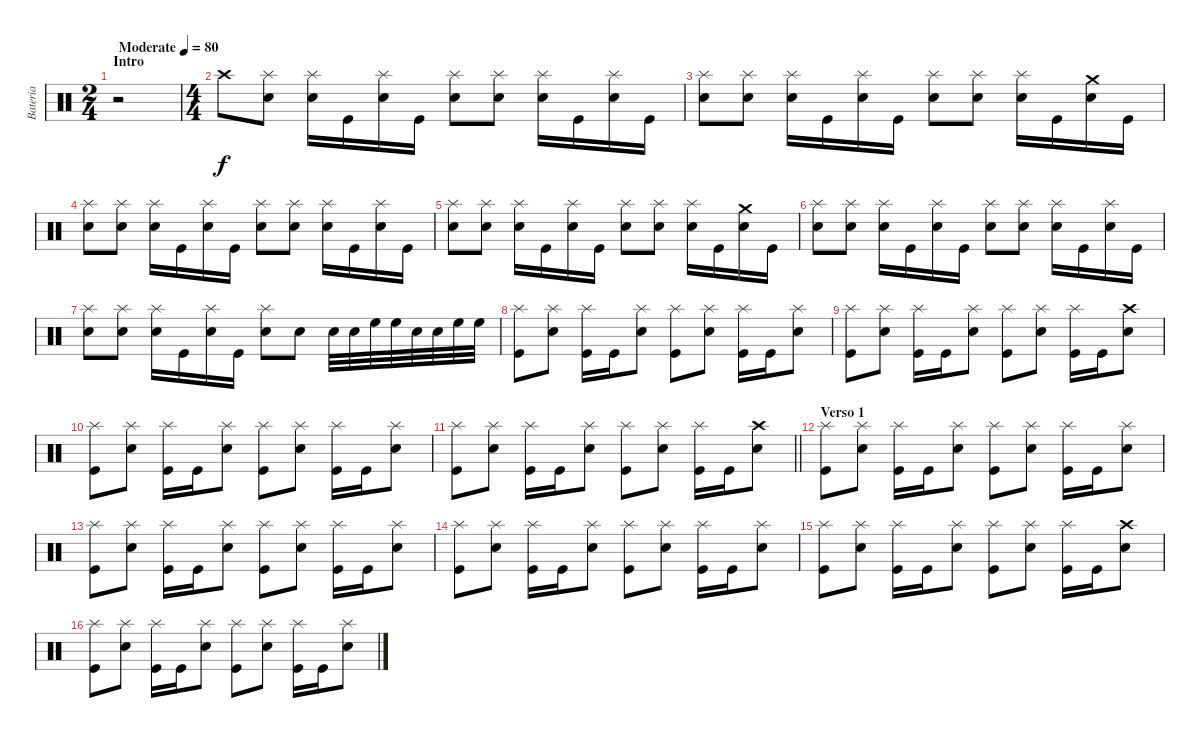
\track ("Bateria" "Bateria") {instrument percussion}
\staff {score}
\articulation defaults
\ts (2 4)
\section ("" "Intro")
\tempo (80 "Moderate")
\clef neutral
\ks c
r.2{dy f} |
\ts (4 4)
"Crash high (hit)".8 ("Electric Snare (hit)" "Splash (hit)").8 ("Electric Snare (hit)" "Splash (hit)").16 "Kick (hit)".16 ("Electric Snare (hit)" "Splash (hit)").16 "Kick (hit)".16 ("Electric Snare (hit)" "Splash (hit)").8 ("Electric Snare (hit)" "Splash (hit)").8 ("Electric Snare (hit)" "Splash (hit)").16 "Kick (hit)".16 ("Electric Snare (hit)" "Splash (hit)").16 "Kick (hit)".16 |
("Electric Snare (hit)" "Splash (hit)").8 ("Electric Snare (hit)" "Splash (hit)").8 ("Electric Snare (hit)" "Splash (hit)").16 "Kick (hit)".16 ("Electric Snare (hit)" "Splash (hit)").16 "Kick (hit)".16 ("Electric Snare (hit)" "Splash (hit)").8 ("Electric Snare (hit)" "Splash (hit)").8 ("Electric Snare (hit)" "Splash (hit)").16 "Kick (hit)".16 ("Electric Snare (hit)" "Crash medium (hit)").16 "Kick (hit)".16 |
("Electric Snare (hit)" "Splash (hit)").8 ("Electric Snare (hit)" "Splash (hit)").8 ("Electric Snare (hit)" "Splash (hit)").16 "Kick (hit)".16 ("Electric Snare (hit)" "Splash (hit)").16 "Kick (hit)".16 ("Electric Snare (hit)" "Splash (hit)").8 ("Electric Snare (hit)" "Splash (hit)").8 ("Electric Snare (hit)" "Splash (hit)").16 "Kick (hit)".16 ("Electric Snare (hit)" "Splash (hit)").16 "Kick (hit)".16 |
("Electric Snare (hit)" "Splash (hit)").8 ("Electric Snare (hit)" "Splash (hit)").8 ("Electric Snare (hit)" "Splash (hit)").16 "Kick (hit)".16 ("Electric Snare (hit)" "Splash (hit)").16 "Kick (hit)".16 ("Electric Snare (hit)" "Splash (hit)").8 ("Electric Snare (hit)" "Splash (hit)").8 ("Electric Snare (hit)" "Splash (hit)").16 "Kick (hit)".16 ("Electric Snare (hit)" "Crash medium (hit)").16 "Kick (hit)".16 |
("Electric Snare (hit)" "Splash (hit)").8 ("Electric Snare (hit)" "Splash (hit)").8 ("Electric Snare (hit)" "Splash (hit)").16 "Kick (hit)".16 ("Electric Snare (hit)" "Splash (hit)").16 "Kick (hit)".16 ("Electric Snare (hit)" "Splash (hit)").8 ("Electric Snare (hit)" "Splash (hit)").8 ("Electric Snare (hit)" "Splash (hit)").16 "Kick (hit)".16 ("Electric Snare (hit)" "Splash (hit)").16 "Kick (hit)".16 |
("Electric Snare (hit)" "Splash (hit)").8 ("Electric Snare (hit)" "Splash (hit)").8 ("Electric Snare (hit)" "Splash (hit)").16 "Kick (hit)".16 ("Electric Snare (hit)" "Splash (hit)").16 "Kick (hit)".16 ("Electric Snare (hit)" "Splash (hit)").8 "Electric Snare (hit)".8 "Electric Snare (hit)".32 "Electric Snare (hit)".32 "High Floor Tom (hit)".32 "High Floor Tom (hit)".32 "Electric Snare (hit)".32 "Electric Snare (hit)".32 "High Floor Tom (hit)".32 "High Floor Tom (hit)".32 |
("Kick (hit)" "Splash (hit)").8 ("Electric Snare (hit)" "Splash (hit)").8 ("Kick (hit)" "Splash (hit)").16 "Kick (hit)".16 ("Electric Snare (hit)" "Splash (hit)").8 ("Kick (hit)" "Splash (hit)").8 ("Electric Snare (hit)" "Splash (hit)").8 ("Kick (hit)" "Splash (hit)").16 "Kick (hit)".16 ("Electric Snare (hit)" "Splash (hit)").8 |
("Kick (hit)" "Splash (hit)").8 ("Electric Snare (hit)" "Splash (hit)").8 ("Kick (hit)" "Splash (hit)").16 "Kick (hit)".16 ("Electric Snare (hit)" "Splash (hit)").8 ("Kick (hit)" "Splash (hit)").8 ("Electric Snare (hit)" "Splash (hit)").8 ("Kick (hit)" "Splash (hit)").16 "Kick (hit)".16 ("Electric Snare (hit)" "Crash high (hit)").8 |
("Kick (hit)" "Splash (hit)").8 ("Electric Snare (hit)" "Splash (hit)").8 ("Kick (hit)" "Splash (hit)").16 "Kick (hit)".16 ("Electric Snare (hit)" "Splash (hit)").8 ("Kick (hit)" "Splash (hit)").8 ("Electric Snare (hit)" "Splash (hit)").8 ("Kick (hit)" "Splash (hit)").16 "Kick (hit)".16 ("Electric Snare (hit)" "Splash (hit)").8 |
\barLineRight lightlight
("Kick (hit)" "Splash (hit)").8 ("Electric Snare (hit)" "Splash (hit)").8 ("Kick (hit)" "Splash (hit)").16 "Kick (hit)".16 ("Electric Snare (hit)" "Splash (hit)").8 ("Kick (hit)" "Splash (hit)").8 ("Electric Snare (hit)" "Splash (hit)").8 ("Kick (hit)" "Splash (hit)").16 "Kick (hit)".16 ("Electric Snare (hit)" "Crash high (hit)").8 |
\section ("" "Verso 1")
("Kick (hit)" "Splash (hit)").8 ("Electric Snare (hit)" "Splash (hit)").8 ("Kick (hit)" "Splash (hit)").16 "Kick (hit)".16 ("Electric Snare (hit)" "Splash (hit)").8 ("Kick (hit)" "Splash (hit)").8 ("Electric Snare (hit)" "Splash (hit)").8 ("Kick (hit)" "Splash (hit)").16 "Kick (hit)".16 ("Electric Snare (hit)" "Splash (hit)").8 |
("Kick (hit)" "Splash (hit)").8 ("Electric Snare (hit)" "Splash (hit)").8 ("Kick (hit)" "Splash (hit)").16 "Kick (hit)".16 ("Electric Snare (hit)" "Splash (hit)").8 ("Kick (hit)" "Splash (hit)").8 ("Electric Snare (hit)" "Splash (hit)").8 ("Kick (hit)" "Splash (hit)").16 "Kick (hit)".16 ("Electric Snare (hit)" "Splash (hit)").8 |
("Kick (hit)" "Splash (hit)").8 ("Electric Snare (hit)" "Splash (hit)").8 ("Kick (hit)" "Splash (hit)").16 "Kick (hit)".16 ("Electric Snare (hit)" "Splash (hit)").8 ("Kick (hit)" "Splash (hit)").8 ("Electric Snare (hit)" "Splash (hit)").8 ("Kick (hit)" "Splash (hit)").16 "Kick (hit)".16 ("Electric Snare (hit)" "Splash (hit)").8 |
("Kick (hit)" "Splash (hit)").8 ("Electric Snare (hit)" "Splash (hit)").8 ("Kick (hit)" "Splash (hit)").16 "Kick (hit)".16 ("Electric Snare (hit)" "Splash (hit)").8 ("Kick (hit)" "Splash (hit)").8 ("Electric Snare (hit)" "Splash (hit)").8 ("Kick (hit)" "Splash (hit)").16 "Kick (hit)".16 ("Electric Snare (hit)" "Crash high (hit)").8 |
("Kick (hit)" "Splash (hit)").8 ("Electric Snare (hit)" "Splash (hit)").8 ("Kick (hit)" "Splash (hit)").16 "Kick (hit)".16 ("Electric Snare (hit)" "Splash (hit)").8 ("Kick (hit)" "Splash (hit)").8 ("Electric Snare (hit)" "Splash (hit)").8 ("Kick (hit)" "Splash (hit)").16 "Kick (hit)".16 ("Electric Snare (hit)" "Splash (hit)").8
